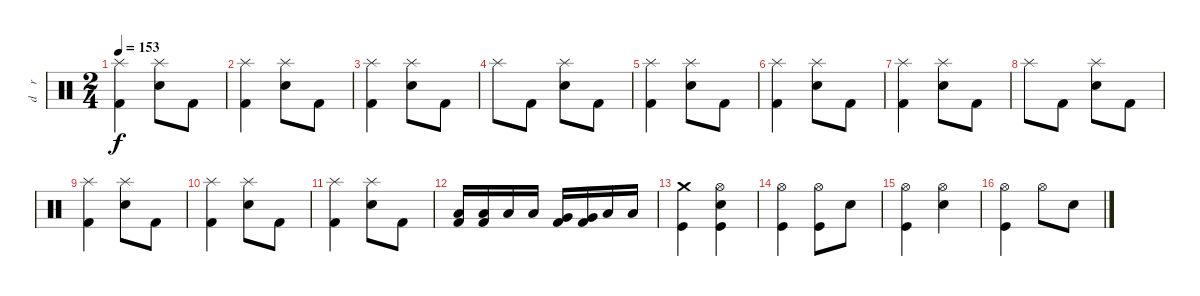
\track ("d    r     u    m    s" "d    r    ") {instrument percussion}
\staff {score}
\articulation defaults
\ts (2 4)
\tempo 153
\clef neutral
\ks c
("Splash (hit)" "Kick (hit) 2").4{dy f} ("Splash (hit)" "Electric Snare (hit)").8 "Kick (hit) 2".8 |
("Splash (hit)" "Kick (hit) 2").4 ("Splash (hit)" "Electric Snare (hit)").8 "Kick (hit) 2".8 |
("Splash (hit)" "Kick (hit) 2").4 ("Splash (hit)" "Electric Snare (hit)").8 "Kick (hit) 2".8 |
"Splash (hit)".8 "Kick (hit) 2".8 ("Splash (hit)" "Electric Snare (hit)").8 "Kick (hit) 2".8 |
("Splash (hit)" "Kick (hit) 2").4 ("Splash (hit)" "Electric Snare (hit)").8 "Kick (hit) 2".8 |
("Splash (hit)" "Kick (hit) 2").4 ("Splash (hit)" "Electric Snare (hit)").8 "Kick (hit) 2".8 |
("Splash (hit)" "Kick (hit) 2").4 ("Splash (hit)" "Electric Snare (hit)").8 "Kick (hit) 2".8 |
"Splash (hit)".8 "Kick (hit) 2".8 ("Splash (hit)" "Electric Snare (hit)").8 "Kick (hit) 2".8 |
("Splash (hit)" "Kick (hit) 2").4 ("Splash (hit)" "Electric Snare (hit)").8 "Kick (hit) 2".8 |
("Splash (hit)" "Kick (hit) 2").4 ("Splash (hit)" "Electric Snare (hit)").8 "Kick (hit) 2".8 |
("Splash (hit)" "Kick (hit) 2").4 ("Splash (hit)" "Electric Snare (hit)").8 "Kick (hit) 2".8 |
("Low Tom (hit)" "Kick (hit) 2").16 ("Low Tom (hit)" "Kick (hit) 2").16 "Low Tom (hit)".16 "Low Tom (hit)".16 ("Very Low Tom (hit)" "Kick (hit) 2").16 ("Very Low Tom (hit)" "Kick (hit) 2").16 "Low Floor Tom (hit)".16 "Low Floor Tom (hit)".16 |
("Crash medium (hit)" "Kick (hit)").4 ("Hi-Hat (open)" "Electric Snare (hit)" "Kick (hit)").4 |
("Hi-Hat (open)" "Kick (hit)").4 ("Hi-Hat (open)" "Kick (hit)").8 "Electric Snare (hit)".8 |
("Hi-Hat (open)" "Kick (hit)").4 ("Hi-Hat (open)" "Electric Snare (hit)").4 |
("Hi-Hat (open)" "Kick (hit)").4 "Hi-Hat (open)".8 "Electric Snare (hit)".8
